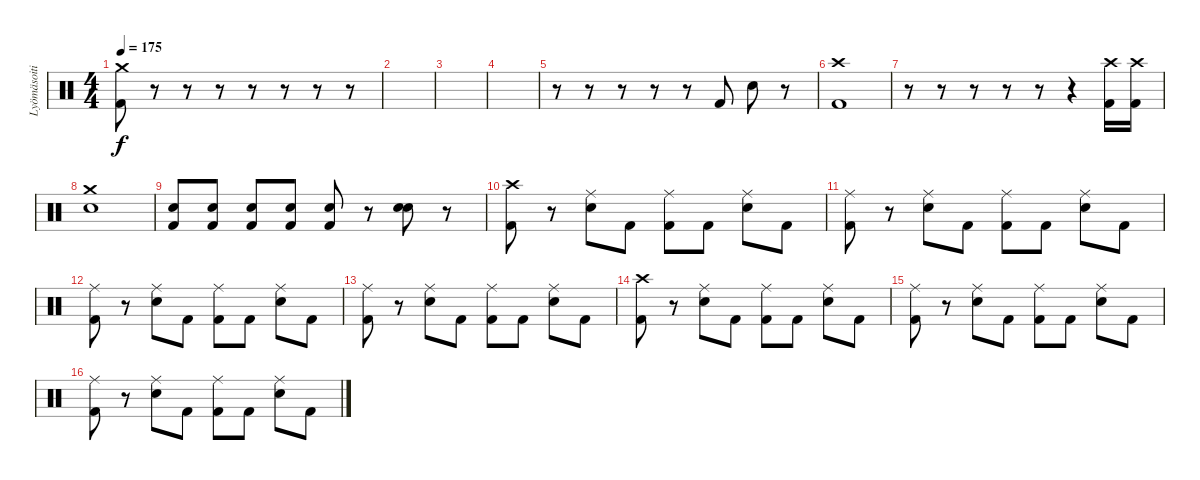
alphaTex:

\track ("Lyömäsoitin" "Lyömäsoiti") {instrument percussion}
\staff {score}
\articulation defaults
\ts (4 4)
\tempo 175
\clef neutral
\ks c
("Crash medium (hit)" "Kick (hit) 2").8{dy f} r.8 r.8 r.8 r.8 r.8 r.8 r.8 |
|
|
|
r.8 r.8 r.8 r.8 r.8 "Kick (hit) 2".8 "Electric Snare (hit)".8 r.8 |
("Crash high (hit)" "Kick (hit) 2").1 |
r.8 r.8 r.8 r.8 r.8 r.4 ("Crash high (hit)" "Kick (hit) 2").16 ("Crash high (hit)" "Kick (hit) 2").16 |
("Crash medium (hit)" "Electric Snare (hit)").1 |
("Electric Snare (hit)" "Kick (hit) 2").8 ("Electric Snare (hit)" "Kick (hit) 2").8 ("Electric Snare (hit)" "Kick (hit) 2").8 ("Electric Snare (hit)" "Kick (hit) 2").8 ("Electric Snare (hit)" "Kick (hit) 2").8 r.8 ("Electric Snare (hit)" "Electric Snare (hit)").8 r.8 |
("Crash high (hit)" "Kick (hit) 2").8 r.8 ("Ride (middle)" "Electric Snare (hit)").8 "Kick (hit) 2".8 ("Ride (middle)" "Kick (hit) 2").8 "Kick (hit) 2".8 ("Ride (middle)" "Electric Snare (hit)").8 "Kick (hit) 2".8 |
("Ride (middle)" "Kick (hit) 2").8 r.8 ("Ride (middle)" "Electric Snare (hit)").8 "Kick (hit) 2".8 ("Ride (middle)" "Kick (hit) 2").8 "Kick (hit) 2".8 ("Ride (middle)" "Electric Snare (hit)").8 "Kick (hit) 2".8 |
("Ride (middle)" "Kick (hit) 2").8 r.8 ("Ride (middle)" "Electric Snare (hit)").8 "Kick (hit) 2".8 ("Ride (middle)" "Kick (hit) 2").8 "Kick (hit) 2".8 ("Ride (middle)" "Electric Snare (hit)").8 "Kick (hit) 2".8 |
("Ride (middle)" "Kick (hit) 2").8 r.8 ("Ride (middle)" "Electric Snare (hit)").8 "Kick (hit) 2".8 ("Ride (middle)" "Kick (hit) 2").8 "Kick (hit) 2".8 ("Ride (middle)" "Electric Snare (hit)").8 "Kick (hit) 2".8 |
("Crash high (hit)" "Kick (hit) 2").8 r.8 ("Ride (middle)" "Electric Snare (hit)").8 "Kick (hit) 2".8 ("Ride (middle)" "Kick (hit) 2").8 "Kick (hit) 2".8 ("Ride (middle)" "Electric Snare (hit)").8 "Kick (hit) 2".8 |
("Ride (middle)" "Kick (hit) 2").8 r.8 ("Ride (middle)" "Electric Snare (hit)").8 "Kick (hit) 2".8 ("Ride (middle)" "Kick (hit) 2").8 "Kick (hit) 2".8 ("Ride (middle)" "Electric Snare (hit)").8 "Kick (hit) 2".8 |
("Ride (middle)" "Kick (hit) 2").8 r.8 ("Ride (middle)" "Electric Snare (hit)").8 "Kick (hit) 2".8 ("Ride (middle)" "Kick (hit) 2").8 "Kick (hit) 2".8 ("Ride (middle)" "Electric Snare (hit)").8 "Kick (hit) 2".8
